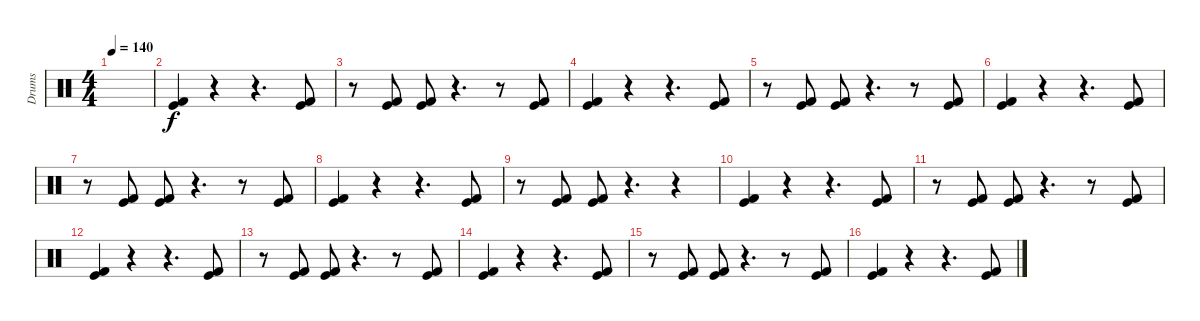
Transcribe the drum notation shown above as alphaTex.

\track ("Drums" "Drums") {instrument percussion}
\staff {score}
\articulation defaults
\ts (4 4)
\tempo 140
\clef neutral
\ks c
|
("Kick (hit) 2" "Kick (hit)").4{volume 16} r.4 r.4{d} ("Kick (hit) 2" "Kick (hit)").8 |
r.8 ("Kick (hit) 2" "Kick (hit)").8 ("Kick (hit) 2" "Kick (hit)").8 r.4{d} r.8 ("Kick (hit) 2" "Kick (hit)").8 |
("Kick (hit) 2" "Kick (hit)").4 r.4 r.4{d} ("Kick (hit) 2" "Kick (hit)").8 |
r.8 ("Kick (hit) 2" "Kick (hit)").8 ("Kick (hit) 2" "Kick (hit)").8 r.4{d} r.8 ("Kick (hit) 2" "Kick (hit)").8 |
("Kick (hit) 2" "Kick (hit)").4 r.4 r.4{d} ("Kick (hit) 2" "Kick (hit)").8 |
r.8 ("Kick (hit) 2" "Kick (hit)").8 ("Kick (hit) 2" "Kick (hit)").8 r.4{d} r.8 ("Kick (hit) 2" "Kick (hit)").8 |
("Kick (hit) 2" "Kick (hit)").4 r.4 r.4{d} ("Kick (hit) 2" "Kick (hit)").8 |
r.8 ("Kick (hit) 2" "Kick (hit)").8 ("Kick (hit) 2" "Kick (hit)").8 r.4{d} r.4 |
("Kick (hit) 2" "Kick (hit)").4 r.4 r.4{d} ("Kick (hit) 2" "Kick (hit)").8 |
r.8 ("Kick (hit) 2" "Kick (hit)").8 ("Kick (hit) 2" "Kick (hit)").8 r.4{d} r.8 ("Kick (hit) 2" "Kick (hit)").8 |
("Kick (hit) 2" "Kick (hit)").4 r.4 r.4{d} ("Kick (hit) 2" "Kick (hit)").8 |
r.8 ("Kick (hit) 2" "Kick (hit)").8 ("Kick (hit) 2" "Kick (hit)").8 r.4{d} r.8 ("Kick (hit) 2" "Kick (hit)").8 |
("Kick (hit) 2" "Kick (hit)").4 r.4 r.4{d} ("Kick (hit) 2" "Kick (hit)").8 |
r.8 ("Kick (hit) 2" "Kick (hit)").8 ("Kick (hit) 2" "Kick (hit)").8 r.4{d} r.8 ("Kick (hit) 2" "Kick (hit)").8 |
("Kick (hit) 2" "Kick (hit)").4 r.4 r.4{d} ("Kick (hit) 2" "Kick (hit)").8
